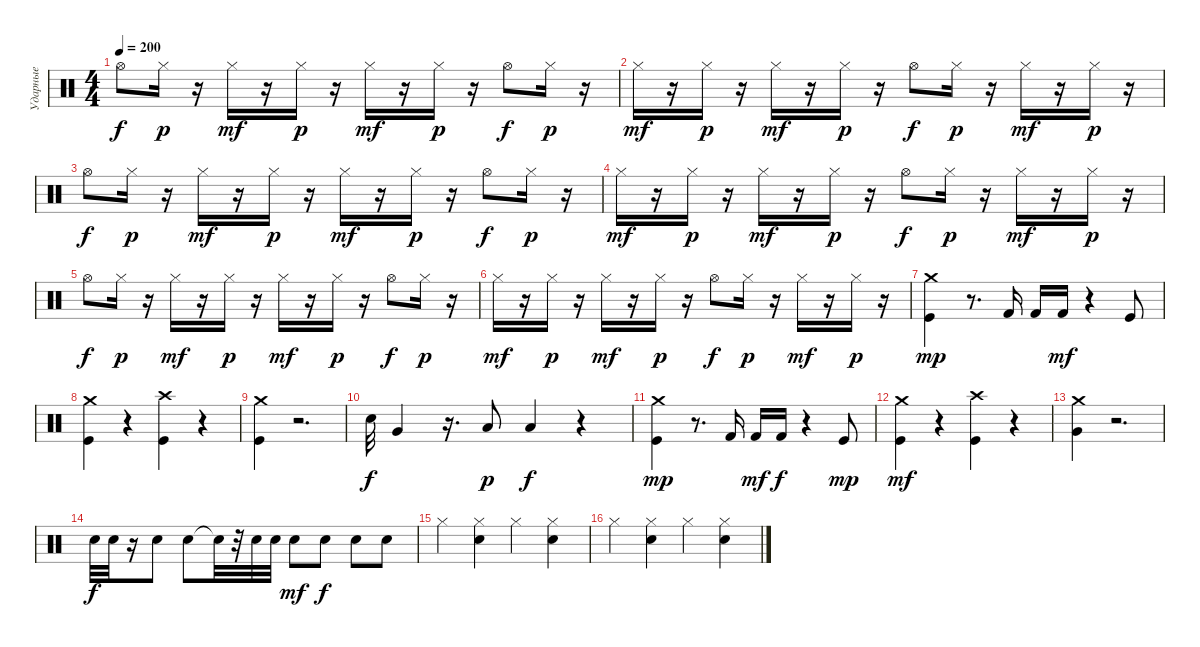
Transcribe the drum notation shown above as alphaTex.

\track ("Ударные" "Ударные") {instrument percussion}
\staff {score}
\articulation defaults
\ts (4 4)
\tempo 200
\clef neutral
\ks c "Hi-Hat (open)".8{dy f} "Hi-Hat (closed)".16{dy p}
r.16 "Hi-Hat (closed)".16{dy mf} r.16 "Hi-Hat (closed)".16{dy p} r.16 "Hi-Hat (closed)".16{dy mf} r.16 "Hi-Hat (closed)".16{dy p} r.16 "Hi-Hat (open)".8{dy f} "Hi-Hat (closed)".16{dy p} r.16 |
"Hi-Hat (closed)".16{dy mf} r.16 "Hi-Hat (closed)".16{dy p} r.16 "Hi-Hat (closed)".16{dy mf} r.16 "Hi-Hat (closed)".16{dy p} r.16 "Hi-Hat (open)".8{dy f} "Hi-Hat (closed)".16{dy p} r.16 "Hi-Hat (closed)".16{dy mf} r.16 "Hi-Hat (closed)".16{dy p} r.16 |
"Hi-Hat (open)".8{dy f} "Hi-Hat (closed)".16{dy p} r.16 "Hi-Hat (closed)".16{dy mf} r.16 "Hi-Hat (closed)".16{dy p} r.16 "Hi-Hat (closed)".16{dy mf} r.16 "Hi-Hat (closed)".16{dy p} r.16 "Hi-Hat (open)".8{dy f} "Hi-Hat (closed)".16{dy p} r.16 |
"Hi-Hat (closed)".16{dy mf} r.16 "Hi-Hat (closed)".16{dy p} r.16 "Hi-Hat (closed)".16{dy mf} r.16 "Hi-Hat (closed)".16{dy p} r.16 "Hi-Hat (open)".8{dy f} "Hi-Hat (closed)".16{dy p} r.16 "Hi-Hat (closed)".16{dy mf} r.16 "Hi-Hat (closed)".16{dy p} r.16 |
"Hi-Hat (open)".8{dy f} "Hi-Hat (closed)".16{dy p} r.16 "Hi-Hat (closed)".16{dy mf} r.16 "Hi-Hat (closed)".16{dy p} r.16 "Hi-Hat (closed)".16{dy mf} r.16 "Hi-Hat (closed)".16{dy p} r.16 "Hi-Hat (open)".8{dy f} "Hi-Hat (closed)".16{dy p} r.16 |
"Hi-Hat (closed)".16{dy mf} r.16 "Hi-Hat (closed)".16{dy p} r.16 "Hi-Hat (closed)".16{dy mf} r.16 "Hi-Hat (closed)".16{dy p} r.16 "Hi-Hat (open)".8{dy f} "Hi-Hat (closed)".16{dy p} r.16 "Hi-Hat (closed)".16{dy mf} r.16 "Hi-Hat (closed)".16{dy p} r.16 |
("Crash medium (hit)" "Kick (hit)").4{dy mp} r.8{d} "Kick (hit) 2".16 "Kick (hit) 2".16 "Kick (hit) 2".16{dy mf} r.4 "Kick (hit)".8 |
("Kick (hit)" "Crash medium (hit)").4 r.4 ("Crash high (hit)" "Kick (hit)").4 r.4 |
("Crash medium (hit)" "Kick (hit)").4 r.2{d} |
"Snare (hit) 2".32{dy f} "Very Low Tom (hit)".4 r.16{d} "Low Tom (hit)".8{dy p} "Low Floor Tom (hit)".4{dy f} r.4 |
("Crash medium (hit)" "Kick (hit)").4{dy mp} r.8{d} "Kick (hit) 2".16 "Kick (hit) 2".16{dy mf} "Kick (hit) 2".16{dy f} r.4 "Kick (hit)".8{dy mp} |
("Kick (hit)" "Crash medium (hit)").4{dy mf} r.4 ("Crash high (hit)" "Kick (hit)").4 r.4 |
("Crash medium (hit)" "Very Low Tom (hit)").4 r.2{d} |
"Electric Snare (hit)".32{dy f} "Electric Snare (hit)".32 r.16 "Electric Snare (hit)".8 "Electric Snare (hit)".8 "Snare (hit)"{t}.32 r.32 "Electric Snare (hit)".32 "Electric Snare (hit)".32 "Electric Snare (hit)".8{dy mf} "Electric Snare (hit)".8{dy f} "Electric Snare (hit)".8 "Electric Snare (hit)".8 |
"Hi-Hat (closed)".4 ("Snare (hit) 2" "Hi-Hat (closed)").4 "Hi-Hat (closed)".4 ("Snare (hit) 2" "Hi-Hat (closed)").4 |
"Hi-Hat (closed)".4 ("Snare (hit) 2" "Hi-Hat (closed)").4 "Hi-Hat (closed)".4 ("Snare (hit) 2" "Hi-Hat (closed)").4
